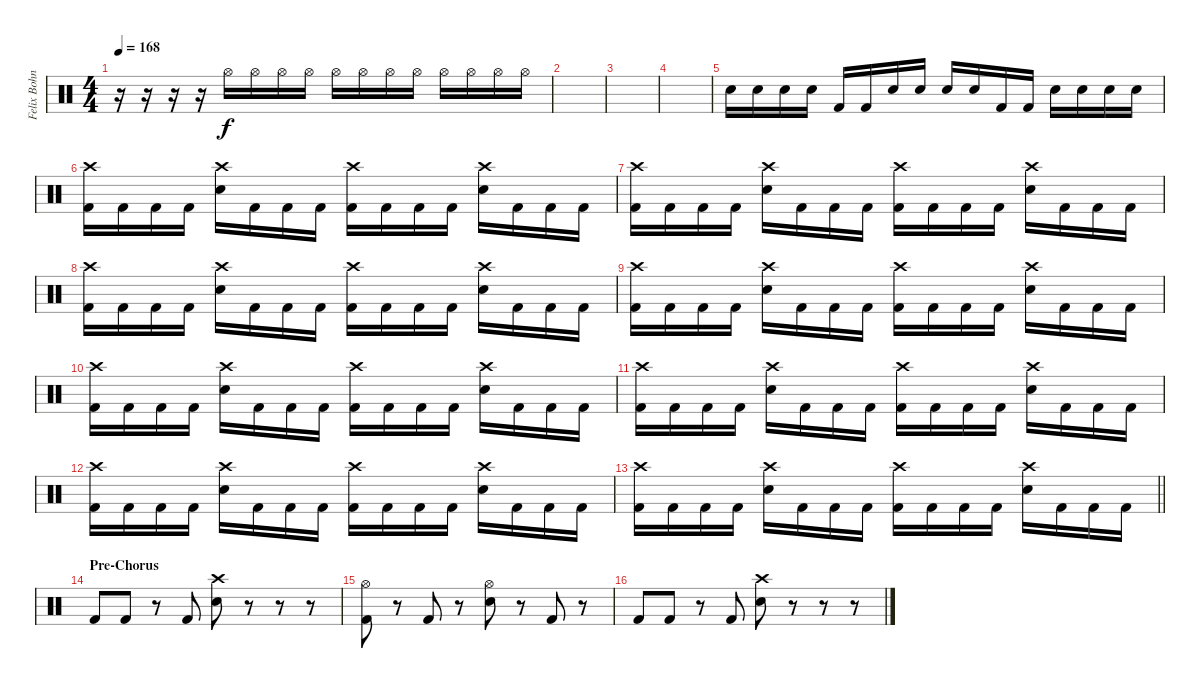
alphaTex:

\track ("Felix Bohnke" "Felix Bohn") {instrument percussion}
\staff {score}
\articulation defaults
\ts (4 4)
\tempo 168
\clef neutral
\ks c
r.16{dy f} r.16 r.16 r.16 "Hi-Hat (open)".16{volume 1} "Hi-Hat (open)".16{volume 3} "Hi-Hat (open)".16{volume 4} "Hi-Hat (open)".16{volume 6} "Hi-Hat (open)".16{volume 7} "Hi-Hat (open)".16{volume 8} "Hi-Hat (open)".16{volume 9} "Hi-Hat (open)".16{volume 10} "Hi-Hat (open)".16{volume 12} "Hi-Hat (open)".16{volume 13} "Hi-Hat (open)".16{volume 14} "Hi-Hat (open)".16{volume 16} |
|
|
|
"Electric Snare (hit)".16 "Electric Snare (hit)".16 "Electric Snare (hit)".16 "Electric Snare (hit)".16 "Kick (hit) 2".16 "Kick (hit) 2".16 "Electric Snare (hit)".16 "Electric Snare (hit)".16 "Electric Snare (hit)".16 "Electric Snare (hit)".16 "Kick (hit) 2".16 "Kick (hit) 2".16 "Electric Snare (hit)".16 "Electric Snare (hit)".16 "Electric Snare (hit)".16 "Electric Snare (hit)".16 |
("Crash high (hit)" "Kick (hit) 2").16 "Kick (hit) 2".16 "Kick (hit) 2".16 "Kick (hit) 2".16 ("Crash high (hit)" "Electric Snare (hit)").16 "Kick (hit) 2".16 "Kick (hit) 2".16 "Kick (hit) 2".16 ("Crash high (hit)" "Kick (hit) 2").16 "Kick (hit) 2".16 "Kick (hit) 2".16 "Kick (hit) 2".16 ("Crash high (hit)" "Electric Snare (hit)").16 "Kick (hit) 2".16 "Kick (hit) 2".16 "Kick (hit) 2".16 |
("Crash high (hit)" "Kick (hit) 2").16 "Kick (hit) 2".16 "Kick (hit) 2".16 "Kick (hit) 2".16 ("Crash high (hit)" "Electric Snare (hit)").16 "Kick (hit) 2".16 "Kick (hit) 2".16 "Kick (hit) 2".16 ("Crash high (hit)" "Kick (hit) 2").16 "Kick (hit) 2".16 "Kick (hit) 2".16 "Kick (hit) 2".16 ("Crash high (hit)" "Electric Snare (hit)").16 "Kick (hit) 2".16 "Kick (hit) 2".16 "Kick (hit) 2".16 |
("Crash high (hit)" "Kick (hit) 2").16 "Kick (hit) 2".16 "Kick (hit) 2".16 "Kick (hit) 2".16 ("Crash high (hit)" "Electric Snare (hit)").16 "Kick (hit) 2".16 "Kick (hit) 2".16 "Kick (hit) 2".16 ("Crash high (hit)" "Kick (hit) 2").16 "Kick (hit) 2".16 "Kick (hit) 2".16 "Kick (hit) 2".16 ("Crash high (hit)" "Electric Snare (hit)").16 "Kick (hit) 2".16 "Kick (hit) 2".16 "Kick (hit) 2".16 |
("Crash high (hit)" "Kick (hit) 2").16 "Kick (hit) 2".16 "Kick (hit) 2".16 "Kick (hit) 2".16 ("Crash high (hit)" "Electric Snare (hit)").16 "Kick (hit) 2".16 "Kick (hit) 2".16 "Kick (hit) 2".16 ("Crash high (hit)" "Kick (hit) 2").16 "Kick (hit) 2".16 "Kick (hit) 2".16 "Kick (hit) 2".16 ("Crash high (hit)" "Electric Snare (hit)").16 "Kick (hit) 2".16 "Kick (hit) 2".16 "Kick (hit) 2".16 |
("Crash high (hit)" "Kick (hit) 2").16 "Kick (hit) 2".16 "Kick (hit) 2".16 "Kick (hit) 2".16 ("Crash high (hit)" "Electric Snare (hit)").16 "Kick (hit) 2".16 "Kick (hit) 2".16 "Kick (hit) 2".16 ("Crash high (hit)" "Kick (hit) 2").16 "Kick (hit) 2".16 "Kick (hit) 2".16 "Kick (hit) 2".16 ("Crash high (hit)" "Electric Snare (hit)").16 "Kick (hit) 2".16 "Kick (hit) 2".16 "Kick (hit) 2".16 |
("Crash high (hit)" "Kick (hit) 2").16 "Kick (hit) 2".16 "Kick (hit) 2".16 "Kick (hit) 2".16 ("Crash high (hit)" "Electric Snare (hit)").16 "Kick (hit) 2".16 "Kick (hit) 2".16 "Kick (hit) 2".16 ("Crash high (hit)" "Kick (hit) 2").16 "Kick (hit) 2".16 "Kick (hit) 2".16 "Kick (hit) 2".16 ("Crash high (hit)" "Electric Snare (hit)").16 "Kick (hit) 2".16 "Kick (hit) 2".16 "Kick (hit) 2".16 |
("Crash high (hit)" "Kick (hit) 2").16 "Kick (hit) 2".16 "Kick (hit) 2".16 "Kick (hit) 2".16 ("Crash high (hit)" "Electric Snare (hit)").16 "Kick (hit) 2".16 "Kick (hit) 2".16 "Kick (hit) 2".16 ("Crash high (hit)" "Kick (hit) 2").16 "Kick (hit) 2".16 "Kick (hit) 2".16 "Kick (hit) 2".16 ("Crash high (hit)" "Electric Snare (hit)").16 "Kick (hit) 2".16 "Kick (hit) 2".16 "Kick (hit) 2".16 |
\barLineRight lightlight
("Crash high (hit)" "Kick (hit) 2").16 "Kick (hit) 2".16 "Kick (hit) 2".16 "Kick (hit) 2".16 ("Crash high (hit)" "Electric Snare (hit)").16 "Kick (hit) 2".16 "Kick (hit) 2".16 "Kick (hit) 2".16 ("Crash high (hit)" "Kick (hit) 2").16 "Kick (hit) 2".16 "Kick (hit) 2".16 "Kick (hit) 2".16 ("Crash high (hit)" "Electric Snare (hit)").16 "Kick (hit) 2".16 "Kick (hit) 2".16 "Kick (hit) 2".16 |
\section ("" "Pre-Chorus")
"Kick (hit) 2".8 "Kick (hit) 2".8 r.8 "Kick (hit) 2".8 ("Crash high (hit)" "Electric Snare (hit)").8 r.8 r.8 r.8 |
("Hi-Hat (open)" "Kick (hit) 2").8 r.8 "Kick (hit) 2".8 r.8 ("Hi-Hat (open)" "Electric Snare (hit)").8 r.8 "Kick (hit) 2".8 r.8 |
"Kick (hit) 2".8 "Kick (hit) 2".8 r.8 "Kick (hit) 2".8 ("Crash high (hit)" "Electric Snare (hit)").8 r.8 r.8 r.8
